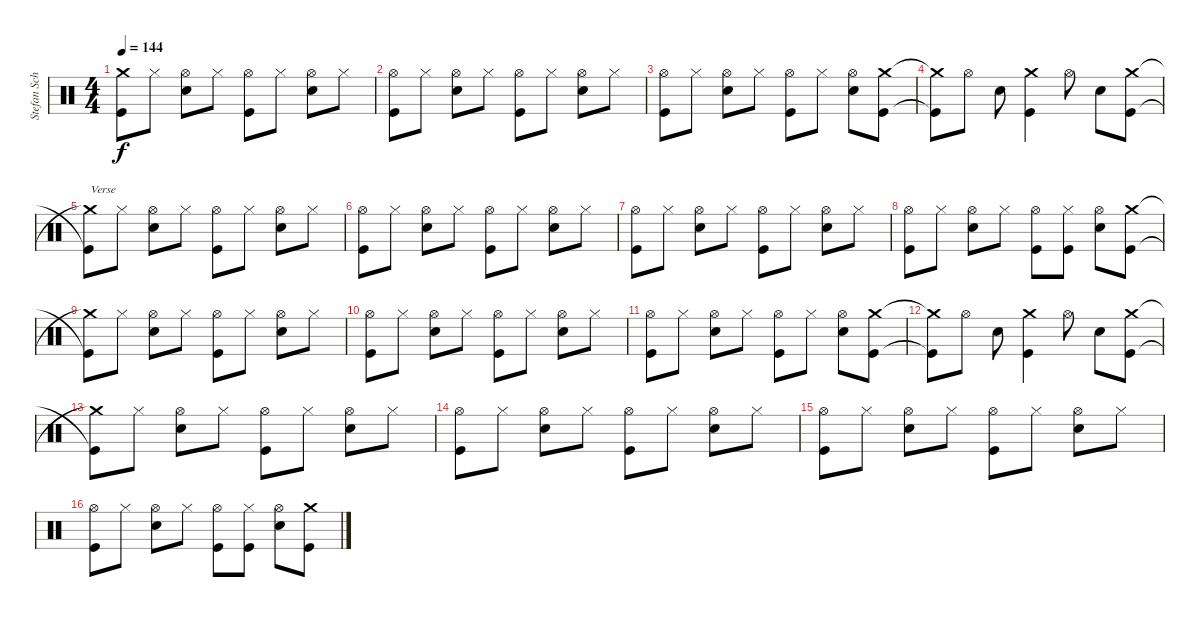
\track ("Stefan Schwarzmann" "Stefan Sch") {instrument percussion}
\staff {score}
\articulation defaults
\ts (4 4)
\tempo 144
\clef neutral
\ks c
("Kick (hit)"{t} "Crash medium (hit)"{t}).8{dy f} "Hi-Hat (closed)".8 ("Snare (hit) 2" "Hi-Hat (open)").8 "Hi-Hat (closed)".8 ("Kick (hit)" "Hi-Hat (open)").8 "Hi-Hat (closed)".8 ("Snare (hit) 2" "Hi-Hat (open)").8 "Hi-Hat (closed)".8 |
("Kick (hit)" "Hi-Hat (open)").8 "Hi-Hat (closed)".8 ("Snare (hit) 2" "Hi-Hat (open)").8 "Hi-Hat (closed)".8 ("Kick (hit)" "Hi-Hat (open)").8 "Hi-Hat (closed)".8 ("Snare (hit) 2" "Hi-Hat (open)").8 "Hi-Hat (closed)".8 |
("Kick (hit)" "Hi-Hat (open)").8 "Hi-Hat (closed)".8 ("Snare (hit) 2" "Hi-Hat (open)").8 "Hi-Hat (closed)".8 ("Kick (hit)" "Hi-Hat (open)").8 "Hi-Hat (closed)".8 ("Snare (hit) 2" "Hi-Hat (open)").8 ("Crash medium (hit)" "Kick (hit)").8 |
("Crash medium (hit)"{t} "Kick (hit)"{t}).8 "Hi-Hat (open)".8 "Snare (hit) 2".8 ("Crash medium (hit)" "Kick (hit)").4 "Hi-Hat (open)".8 "Snare (hit) 2".8 ("Crash medium (hit)" "Kick (hit)").8 |
("Kick (hit)"{t} "Crash medium (hit)"{t}).8{txt "Verse"} "Hi-Hat (closed)".8 ("Snare (hit) 2" "Hi-Hat (open)").8 "Hi-Hat (closed)".8 ("Kick (hit)" "Hi-Hat (open)").8 "Hi-Hat (closed)".8 ("Snare (hit) 2" "Hi-Hat (open)").8 "Hi-Hat (closed)".8 |
("Kick (hit)" "Hi-Hat (open)").8 "Hi-Hat (closed)".8 ("Snare (hit) 2" "Hi-Hat (open)").8 "Hi-Hat (closed)".8 ("Kick (hit)" "Hi-Hat (open)").8 "Hi-Hat (closed)".8 ("Snare (hit) 2" "Hi-Hat (open)").8 "Hi-Hat (closed)".8 |
("Kick (hit)" "Hi-Hat (open)").8 "Hi-Hat (closed)".8 ("Snare (hit) 2" "Hi-Hat (open)").8 "Hi-Hat (closed)".8 ("Kick (hit)" "Hi-Hat (open)").8 "Hi-Hat (closed)".8 ("Snare (hit) 2" "Hi-Hat (open)").8 "Hi-Hat (closed)".8 |
("Kick (hit)" "Hi-Hat (open)").8 "Hi-Hat (closed)".8 ("Snare (hit) 2" "Hi-Hat (open)").8 "Hi-Hat (closed)".8 ("Kick (hit)" "Hi-Hat (open)").8 ("Kick (hit)" "Hi-Hat (closed)").8 ("Snare (hit) 2" "Hi-Hat (open)").8 ("Crash medium (hit)" "Kick (hit)").8 |
("Kick (hit)"{t} "Crash medium (hit)"{t}).8 "Hi-Hat (closed)".8 ("Snare (hit) 2" "Hi-Hat (open)").8 "Hi-Hat (closed)".8 ("Kick (hit)" "Hi-Hat (open)").8 "Hi-Hat (closed)".8 ("Snare (hit) 2" "Hi-Hat (open)").8 "Hi-Hat (closed)".8 |
("Kick (hit)" "Hi-Hat (open)").8 "Hi-Hat (closed)".8 ("Snare (hit) 2" "Hi-Hat (open)").8 "Hi-Hat (closed)".8 ("Kick (hit)" "Hi-Hat (open)").8 "Hi-Hat (closed)".8 ("Snare (hit) 2" "Hi-Hat (open)").8 "Hi-Hat (closed)".8 |
("Kick (hit)" "Hi-Hat (open)").8 "Hi-Hat (closed)".8 ("Snare (hit) 2" "Hi-Hat (open)").8 "Hi-Hat (closed)".8 ("Kick (hit)" "Hi-Hat (open)").8 "Hi-Hat (closed)".8 ("Snare (hit) 2" "Hi-Hat (open)").8 ("Crash medium (hit)" "Kick (hit)").8 |
("Crash medium (hit)"{t} "Kick (hit)"{t}).8 "Hi-Hat (open)".8 "Snare (hit) 2".8 ("Crash medium (hit)" "Kick (hit)").4 "Hi-Hat (open)".8 "Snare (hit) 2".8 ("Crash medium (hit)" "Kick (hit)").8 |
("Kick (hit)"{t} "Crash medium (hit)"{t}).8 "Hi-Hat (closed)".8 ("Snare (hit) 2" "Hi-Hat (open)").8 "Hi-Hat (closed)".8 ("Kick (hit)" "Hi-Hat (open)").8 "Hi-Hat (closed)".8 ("Snare (hit) 2" "Hi-Hat (open)").8 "Hi-Hat (closed)".8 |
("Kick (hit)" "Hi-Hat (open)").8 "Hi-Hat (closed)".8 ("Snare (hit) 2" "Hi-Hat (open)").8 "Hi-Hat (closed)".8 ("Kick (hit)" "Hi-Hat (open)").8 "Hi-Hat (closed)".8 ("Snare (hit) 2" "Hi-Hat (open)").8 "Hi-Hat (closed)".8 |
("Kick (hit)" "Hi-Hat (open)").8 "Hi-Hat (closed)".8 ("Snare (hit) 2" "Hi-Hat (open)").8 "Hi-Hat (closed)".8 ("Kick (hit)" "Hi-Hat (open)").8 "Hi-Hat (closed)".8 ("Snare (hit) 2" "Hi-Hat (open)").8 "Hi-Hat (closed)".8 |
("Kick (hit)" "Hi-Hat (open)").8 "Hi-Hat (closed)".8 ("Snare (hit) 2" "Hi-Hat (open)").8 "Hi-Hat (closed)".8 ("Kick (hit)" "Hi-Hat (open)").8 ("Kick (hit)" "Hi-Hat (closed)").8 ("Snare (hit) 2" "Hi-Hat (open)").8 ("Crash medium (hit)" "Kick (hit)").8
